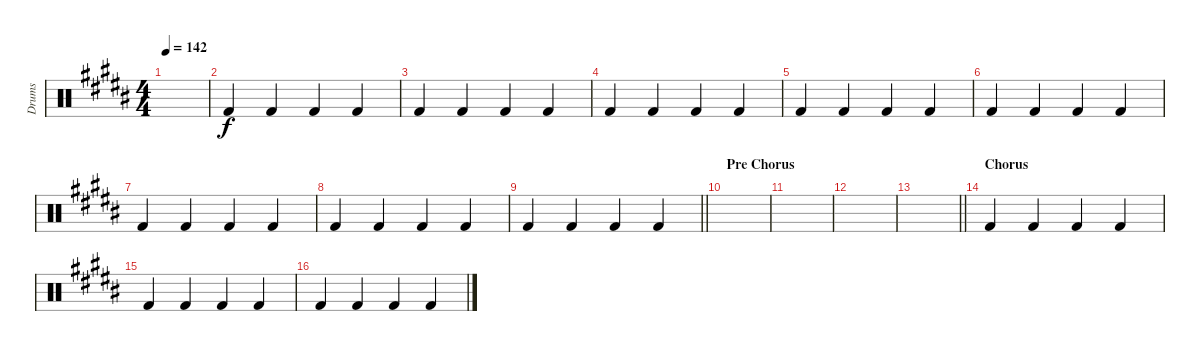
\track ("Drums" "Drums") {instrument percussion}
\staff {score}
\articulation defaults
\ts (4 4)
\tempo 142
\clef neutral
\ks b
|
"Kick (hit) 2".4 "Kick (hit) 2".4 "Kick (hit) 2".4 "Kick (hit) 2".4 |
"Kick (hit) 2".4 "Kick (hit) 2".4 "Kick (hit) 2".4 "Kick (hit) 2".4 |
"Kick (hit) 2".4 "Kick (hit) 2".4 "Kick (hit) 2".4 "Kick (hit) 2".4 |
"Kick (hit) 2".4 "Kick (hit) 2".4 "Kick (hit) 2".4 "Kick (hit) 2".4 |
"Kick (hit) 2".4 "Kick (hit) 2".4 "Kick (hit) 2".4 "Kick (hit) 2".4 |
"Kick (hit) 2".4 "Kick (hit) 2".4 "Kick (hit) 2".4 "Kick (hit) 2".4 |
"Kick (hit) 2".4 "Kick (hit) 2".4 "Kick (hit) 2".4 "Kick (hit) 2".4 |
\barLineRight lightlight "Kick (hit) 2".4 "Kick (hit) 2".4 "Kick (hit) 2".4 "Kick (hit) 2".4
|
\section ("" "Pre Chorus")
|
|
|
\barLineRight lightlight
|
\section ("" "Chorus")
"Kick (hit) 2".4 "Kick (hit) 2".4 "Kick (hit) 2".4 "Kick (hit) 2".4 |
"Kick (hit) 2".4 "Kick (hit) 2".4 "Kick (hit) 2".4 "Kick (hit) 2".4 |
"Kick (hit) 2".4 "Kick (hit) 2".4 "Kick (hit) 2".4 "Kick (hit) 2".4
